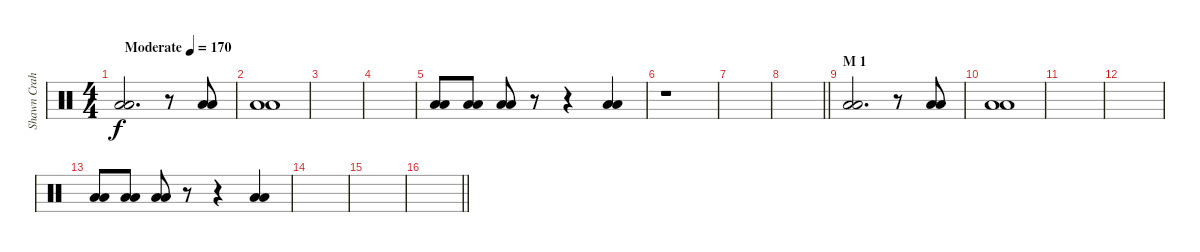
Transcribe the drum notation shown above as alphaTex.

\track ("Shawn Crahan" "Shawn Crah") {instrument percussion}
\staff {score}
\articulation defaults
\ts (4 4)
\tempo (170 "Moderate")
\clef neutral
\ks c
("Low Floor Tom (hit)" "Low Floor Tom (hit)").2{d dy f} r.8 ("Low Floor Tom (hit)" "Low Floor Tom (hit)").8 |
("Low Floor Tom (hit)" "Low Floor Tom (hit)").1 |
|
|
("Low Floor Tom (hit)" "Low Floor Tom (hit)").8 ("Low Floor Tom (hit)" "Low Floor Tom (hit)").8 ("Low Floor Tom (hit)" "Low Floor Tom (hit)").8 r.8 r.4 ("Low Floor Tom (hit)" "Low Floor Tom (hit)").4 |
r.1 |
|
\barLineRight lightlight
|
\section ("" "M 1")
("Low Floor Tom (hit)" "Low Floor Tom (hit)").2{d} r.8 ("Low Floor Tom (hit)" "Low Floor Tom (hit)").8 |
("Low Floor Tom (hit)" "Low Floor Tom (hit)").1 |
|
|
("Low Floor Tom (hit)" "Low Floor Tom (hit)").8 ("Low Floor Tom (hit)" "Low Floor Tom (hit)").8 ("Low Floor Tom (hit)" "Low Floor Tom (hit)").8 r.8 r.4 ("Low Floor Tom (hit)" "Low Floor Tom (hit)").4 |
|
|
\barLineRight lightlight
